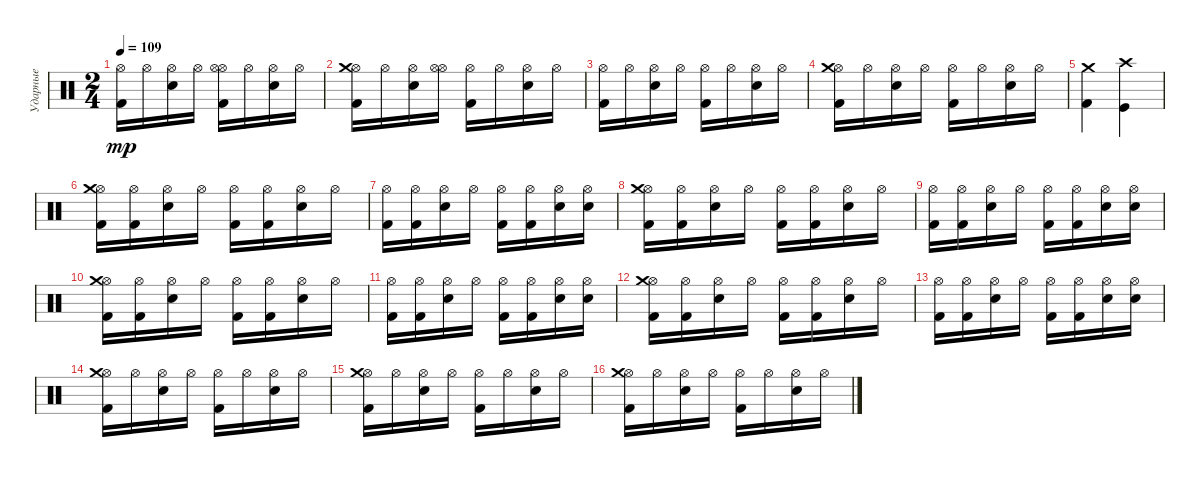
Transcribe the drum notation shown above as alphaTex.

\track ("Ударные" "Ударные") {instrument percussion}
\staff {score}
\articulation defaults
\ts (2 4)
\tempo 109
\clef neutral
\ks c
("Kick (hit) 2" "Hi-Hat (open)").16{dy mp} "Hi-Hat (open)".16 ("Electric Snare (hit)" "Hi-Hat (open)").16 "Hi-Hat (open)".16 ("Kick (hit) 2" "Hi-Hat (open)" "Hi-Hat (open)").16 "Hi-Hat (open)".16 ("Electric Snare (hit)" "Hi-Hat (open)").16 "Hi-Hat (open)".16 |
("Kick (hit) 2" "Hi-Hat (open)" "Crash medium (hit)").16 "Hi-Hat (open)".16 ("Electric Snare (hit)" "Hi-Hat (open)").16 ("Hi-Hat (open)" "Hi-Hat (open)").16 ("Kick (hit) 2" "Hi-Hat (open)").16 "Hi-Hat (open)".16 ("Electric Snare (hit)" "Hi-Hat (open)").16 "Hi-Hat (open)".16 |
("Kick (hit) 2" "Hi-Hat (open)").16 "Hi-Hat (open)".16 ("Electric Snare (hit)" "Hi-Hat (open)").16 "Hi-Hat (open)".16 ("Kick (hit) 2" "Hi-Hat (open)").16 "Hi-Hat (open)".16 ("Electric Snare (hit)" "Hi-Hat (open)").16 "Hi-Hat (open)".16 |
("Kick (hit) 2" "Hi-Hat (open)" "Crash medium (hit)").16 "Hi-Hat (open)".16 ("Electric Snare (hit)" "Hi-Hat (open)").16 "Hi-Hat (open)".16 ("Kick (hit) 2" "Hi-Hat (open)").16 "Hi-Hat (open)".16 ("Electric Snare (hit)" "Hi-Hat (open)").16 "Hi-Hat (open)".16 |
("Kick (hit) 2" "Crash medium (hit)").4 ("Kick (hit)" "Crash high (hit)").4 |
("Kick (hit) 2" "Hi-Hat (open)" "Crash medium (hit)").16 ("Kick (hit) 2" "Hi-Hat (open)").16 ("Electric Snare (hit)" "Hi-Hat (open)").16 "Hi-Hat (open)".16 ("Kick (hit) 2" "Hi-Hat (open)").16 ("Kick (hit) 2" "Hi-Hat (open)").16 ("Electric Snare (hit)" "Hi-Hat (open)").16 "Hi-Hat (open)".16 |
("Kick (hit) 2" "Hi-Hat (open)").16 ("Kick (hit) 2" "Hi-Hat (open)").16 ("Electric Snare (hit)" "Hi-Hat (open)").16 "Hi-Hat (open)".16 ("Kick (hit) 2" "Hi-Hat (open)").16 ("Kick (hit) 2" "Hi-Hat (open)").16 ("Electric Snare (hit)" "Hi-Hat (open)").16 ("Electric Snare (hit)" "Hi-Hat (open)").16 |
("Kick (hit) 2" "Hi-Hat (open)" "Crash medium (hit)").16 ("Kick (hit) 2" "Hi-Hat (open)").16 ("Electric Snare (hit)" "Hi-Hat (open)").16 "Hi-Hat (open)".16 ("Kick (hit) 2" "Hi-Hat (open)").16 ("Kick (hit) 2" "Hi-Hat (open)").16 ("Electric Snare (hit)" "Hi-Hat (open)").16 "Hi-Hat (open)".16 |
("Kick (hit) 2" "Hi-Hat (open)").16 ("Kick (hit) 2" "Hi-Hat (open)").16 ("Electric Snare (hit)" "Hi-Hat (open)").16 "Hi-Hat (open)".16 ("Kick (hit) 2" "Hi-Hat (open)").16 ("Kick (hit) 2" "Hi-Hat (open)").16 ("Electric Snare (hit)" "Hi-Hat (open)").16 ("Electric Snare (hit)" "Hi-Hat (open)").16 |
("Kick (hit) 2" "Hi-Hat (open)" "Crash medium (hit)").16 ("Kick (hit) 2" "Hi-Hat (open)").16 ("Electric Snare (hit)" "Hi-Hat (open)").16 "Hi-Hat (open)".16 ("Kick (hit) 2" "Hi-Hat (open)").16 ("Kick (hit) 2" "Hi-Hat (open)").16 ("Electric Snare (hit)" "Hi-Hat (open)").16 "Hi-Hat (open)".16 |
("Kick (hit) 2" "Hi-Hat (open)").16 ("Kick (hit) 2" "Hi-Hat (open)").16 ("Electric Snare (hit)" "Hi-Hat (open)").16 "Hi-Hat (open)".16 ("Kick (hit) 2" "Hi-Hat (open)").16 ("Kick (hit) 2" "Hi-Hat (open)").16 ("Electric Snare (hit)" "Hi-Hat (open)").16 ("Electric Snare (hit)" "Hi-Hat (open)").16 |
("Kick (hit) 2" "Hi-Hat (open)" "Crash medium (hit)").16 ("Kick (hit) 2" "Hi-Hat (open)").16 ("Electric Snare (hit)" "Hi-Hat (open)").16 "Hi-Hat (open)".16 ("Kick (hit) 2" "Hi-Hat (open)").16 ("Kick (hit) 2" "Hi-Hat (open)").16 ("Electric Snare (hit)" "Hi-Hat (open)").16 "Hi-Hat (open)".16 |
("Kick (hit) 2" "Hi-Hat (open)").16 ("Kick (hit) 2" "Hi-Hat (open)").16 ("Electric Snare (hit)" "Hi-Hat (open)").16 "Hi-Hat (open)".16 ("Kick (hit) 2" "Hi-Hat (open)").16 ("Kick (hit) 2" "Hi-Hat (open)").16 ("Electric Snare (hit)" "Hi-Hat (open)").16 ("Electric Snare (hit)" "Hi-Hat (open)").16 |
("Kick (hit) 2" "Hi-Hat (open)" "Crash medium (hit)").16 "Hi-Hat (open)".16 ("Electric Snare (hit)" "Hi-Hat (open)").16 "Hi-Hat (open)".16 ("Kick (hit) 2" "Hi-Hat (open)").16 "Hi-Hat (open)".16 ("Electric Snare (hit)" "Hi-Hat (open)").16 "Hi-Hat (open)".16 |
("Kick (hit) 2" "Hi-Hat (open)" "Crash medium (hit)").16 "Hi-Hat (open)".16 ("Electric Snare (hit)" "Hi-Hat (open)").16 "Hi-Hat (open)".16 ("Kick (hit) 2" "Hi-Hat (open)").16 "Hi-Hat (open)".16 ("Electric Snare (hit)" "Hi-Hat (open)").16 "Hi-Hat (open)".16 |
("Kick (hit) 2" "Hi-Hat (open)" "Crash medium (hit)").16 "Hi-Hat (open)".16 ("Electric Snare (hit)" "Hi-Hat (open)").16 "Hi-Hat (open)".16 ("Kick (hit) 2" "Hi-Hat (open)").16 "Hi-Hat (open)".16 ("Electric Snare (hit)" "Hi-Hat (open)").16 "Hi-Hat (open)".16
